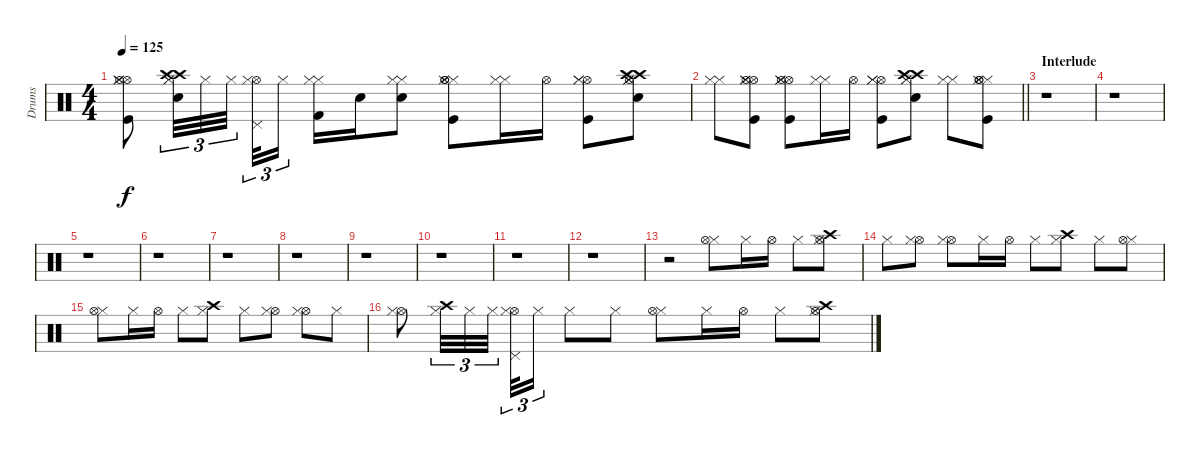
\track ("Drums" "Drums") {instrument percussion}
\staff {score}
\articulation defaults
\ts (4 4)
\tempo 125
\clef neutral
\ks c
("Hi-Hat (open)" "Hi-Hat (closed)" "Kick (hit)" "Hi-Hat (open)" "Hi-Hat (closed)").8{dy f} ("Crash high (hit)" "Hi-Hat (closed)" "Electric Snare (hit)" "Crash high (hit)" "Hi-Hat (closed)").32{tu (3 2)} "Hi-Hat (closed)".32{tu (3 2)} "Hi-Hat (closed)".32{tu (3 2) beam splitsecondary} ("Hi-Hat (open)" "Hi-Hat (closed)" "Pedal Hi-Hat (hit)").32{tu (3 2)} "Hi-Hat (closed)".16{tu (3 2)} ("Hi-Hat (closed)" "Kick (hit) 2" "Hi-Hat (closed)").16 "Electric Snare (hit)".16 ("Hi-Hat (closed)" "Electric Snare (hit)" "Hi-Hat (closed)").8 ("Hi-Hat (closed)" "Hi-Hat (open)" "Kick (hit)" "Hi-Hat (closed)" "Hi-Hat (open)").8 ("Hi-Hat (closed)" "Hi-Hat (closed)").16 "Hi-Hat (open)".16 ("Hi-Hat (open)" "Kick (hit)" "Hi-Hat (closed)" "Hi-Hat (closed)").8 ("Electric Snare (hit)" "Crash high (hit)" "Hi-Hat (closed)" "Crash high (hit)" "Hi-Hat (closed)" "Hi-Hat (open)").8 |
\barLineRight lightlight
("Hi-Hat (closed)" "Hi-Hat (closed)").8 ("Kick (hit)" "Hi-Hat (open)" "Hi-Hat (closed)" "Hi-Hat (open)" "Hi-Hat (closed)").8 ("Hi-Hat (open)" "Kick (hit)" "Hi-Hat (closed)" "Hi-Hat (open)" "Hi-Hat (closed)").8 ("Hi-Hat (closed)" "Hi-Hat (closed)").16 "Hi-Hat (open)".16 ("Hi-Hat (open)" "Kick (hit)" "Hi-Hat (closed)" "Hi-Hat (closed)").8 ("Crash high (hit)" "Electric Snare (hit)" "Hi-Hat (closed)" "Crash high (hit)" "Hi-Hat (closed)").8 ("Hi-Hat (closed)" "Hi-Hat (closed)").8 ("Kick (hit)" "Hi-Hat (closed)" "Hi-Hat (open)" "Hi-Hat (closed)" "Hi-Hat (open)").8 |
\section ("" "Interlude")
r.1 |
r.1 |
r.1 |
r.1 |
r.1 |
r.1 |
r.1 |
r.1 |
r.1 |
r.1 |
r.2 ("Hi-Hat (closed)" "Hi-Hat (open)").8 "Hi-Hat (closed)".16 "Hi-Hat (open)".16 "Hi-Hat (closed)".8 ("Crash high (hit)" "Hi-Hat (closed)" "Hi-Hat (open)").8 |
"Hi-Hat (closed)".8 ("Hi-Hat (open)" "Hi-Hat (closed)").8 ("Hi-Hat (open)" "Hi-Hat (closed)").8 "Hi-Hat (closed)".16 "Hi-Hat (open)".16 "Hi-Hat (closed)".8 ("Crash high (hit)" "Hi-Hat (closed)").8 "Hi-Hat (closed)".8 ("Hi-Hat (closed)" "Hi-Hat (open)").8 |
("Hi-Hat (closed)" "Hi-Hat (open)").8 "Hi-Hat (closed)".16 "Hi-Hat (open)".16 "Hi-Hat (closed)".8 ("Crash high (hit)" "Hi-Hat (closed)").8 "Hi-Hat (closed)".8 ("Hi-Hat (open)" "Hi-Hat (closed)").8 ("Hi-Hat (open)" "Hi-Hat (closed)").8 "Hi-Hat (closed)".8 |
("Hi-Hat (open)" "Hi-Hat (closed)").8 ("Crash high (hit)" "Hi-Hat (closed)").32{tu (3 2)} "Hi-Hat (closed)".32{tu (3 2)} "Hi-Hat (closed)".32{tu (3 2) beam splitsecondary} ("Hi-Hat (open)" "Hi-Hat (closed)" "Pedal Hi-Hat (hit)").32{tu (3 2)} "Hi-Hat (closed)".16{tu (3 2)} "Hi-Hat (closed)".8 "Hi-Hat (closed)".8 ("Hi-Hat (closed)" "Hi-Hat (open)").8 "Hi-Hat (closed)".16 "Hi-Hat (open)".16 "Hi-Hat (closed)".8 ("Crash high (hit)" "Hi-Hat (closed)" "Hi-Hat (open)").8
